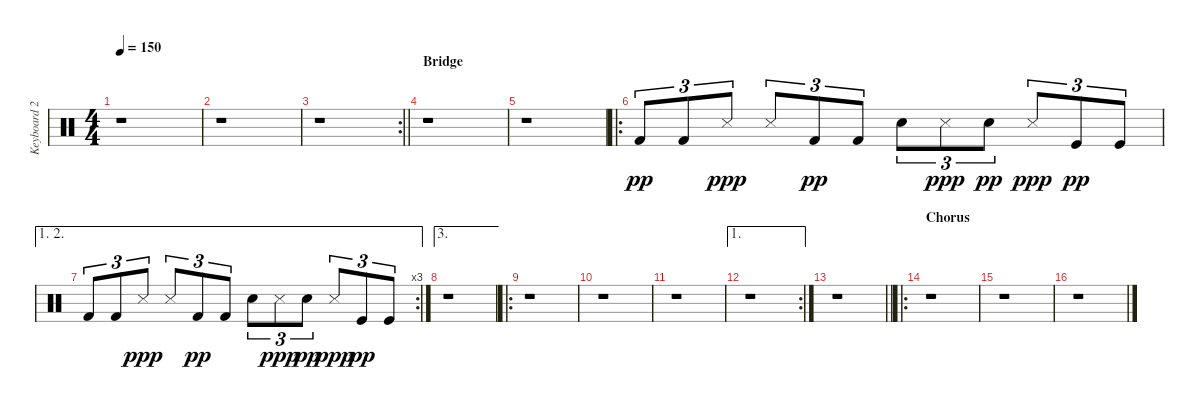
\track ("Keyboard 2" "Keyboard 2") {instrument percussion}
\staff {score}
\articulation defaults
\ts (4 4)
\tempo 150
\clef neutral
\ks c
r.1{dy pp} |
r.1 |
\rc 2
\barLineRight lightlight
r.1 |
\section ("" "Bridge")
r.1 |
r.1 |
\ro "Kick (hit) 2".8{tu (3 2)} "Kick (hit) 2".8{tu (3 2)} "Metronome (hit)".8{tu (3 2) dy ppp} "Metronome (hit)".8{tu (3 2)} "Kick (hit) 2".8{tu (3 2) dy pp} "Kick (hit) 2".8{tu (3 2)} "Snare (hit) 2".8{tu (3 2)} "Metronome (hit)".8{tu (3 2) dy ppp} "Electric Snare (hit)".8{tu (3 2) dy pp} "Metronome (hit)".8{tu (3 2) dy ppp} "Kick (hit)".8{tu (3 2) dy pp} "Kick (hit)".8{tu (3 2)}
|
\ae (1 2)
\rc 3 "Kick (hit) 2".8{tu (3 2)} "Kick (hit) 2".8{tu (3 2)} "Metronome (hit)".8{tu (3 2) dy ppp} "Metronome (hit)".8{tu (3 2)} "Kick (hit) 2".8{tu (3 2) dy pp} "Kick (hit) 2".8{tu (3 2)} "Snare (hit) 2".8{tu (3 2)} "Metronome (hit)".8{tu (3 2) dy ppp} "Electric Snare (hit)".8{tu (3 2) dy pp} "Metronome (hit)".8{tu (3 2) dy ppp} "Kick (hit)".8{tu (3 2) dy pp} "Kick (hit)".8{tu (3 2)}
|
\ae 3
r.1 |
\ro
r.1 |
r.1 |
r.1 |
\ae 1
\rc 2
r.1 |
\barLineRight lightlight
r.1 |
\ro
\section ("" "Chorus")
r.1 |
r.1 |
r.1
